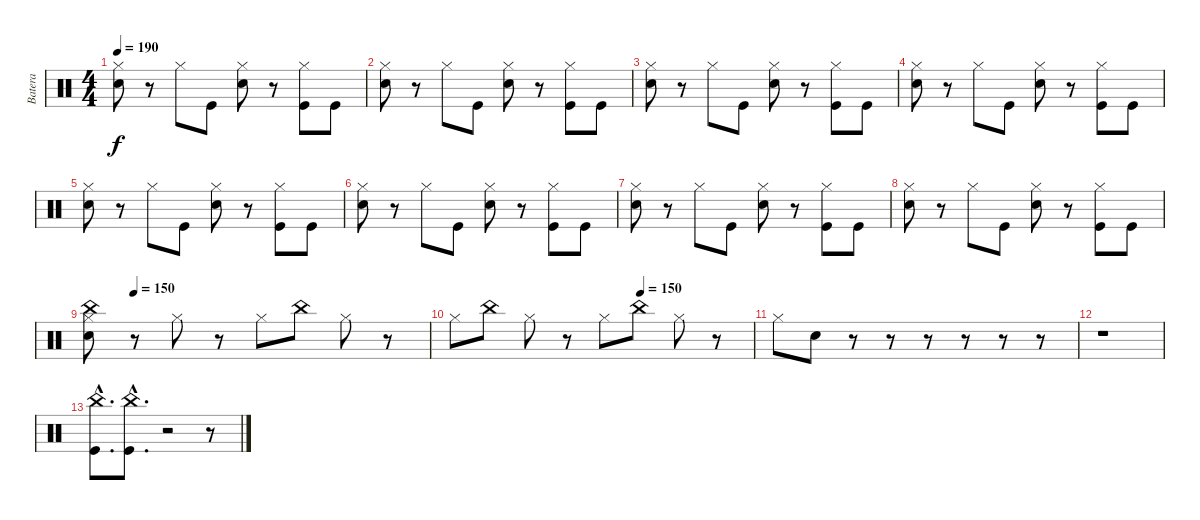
\track ("Batera" "Batera") {instrument percussion}
\staff {score}
\articulation defaults
\ts (4 4)
\tempo 190
\clef neutral
\ks c
("Hi-Hat (closed)" "Snare (hit) 2").8{dy f} r.8 "Hi-Hat (closed)".8 "Kick (hit)".8 ("Hi-Hat (closed)" "Snare (hit) 2").8 r.8 ("Hi-Hat (closed)" "Kick (hit)").8 "Kick (hit)".8 |
("Hi-Hat (closed)" "Snare (hit) 2").8 r.8 "Hi-Hat (closed)".8 "Kick (hit)".8 ("Hi-Hat (closed)" "Snare (hit) 2").8 r.8 ("Hi-Hat (closed)" "Kick (hit)").8 "Kick (hit)".8 |
("Hi-Hat (closed)" "Snare (hit) 2").8 r.8 "Hi-Hat (closed)".8 "Kick (hit)".8 ("Hi-Hat (closed)" "Snare (hit) 2").8 r.8 ("Hi-Hat (closed)" "Kick (hit)").8 "Kick (hit)".8 |
("Hi-Hat (closed)" "Snare (hit) 2").8 r.8 "Hi-Hat (closed)".8 "Kick (hit)".8 ("Hi-Hat (closed)" "Snare (hit) 2").8 r.8 ("Hi-Hat (closed)" "Kick (hit)").8 "Kick (hit)".8 |
("Hi-Hat (closed)" "Snare (hit) 2").8 r.8 "Hi-Hat (closed)".8 "Kick (hit)".8 ("Hi-Hat (closed)" "Snare (hit) 2").8 r.8 ("Hi-Hat (closed)" "Kick (hit)").8 "Kick (hit)".8 |
("Hi-Hat (closed)" "Snare (hit) 2").8 r.8 "Hi-Hat (closed)".8 "Kick (hit)".8 ("Hi-Hat (closed)" "Snare (hit) 2").8 r.8 ("Hi-Hat (closed)" "Kick (hit)").8 "Kick (hit)".8 |
("Hi-Hat (closed)" "Snare (hit) 2").8 r.8 "Hi-Hat (closed)".8 "Kick (hit)".8 ("Hi-Hat (closed)" "Snare (hit) 2").8 r.8 ("Hi-Hat (closed)" "Kick (hit)").8 "Kick (hit)".8 |
("Hi-Hat (closed)" "Snare (hit) 2").8 r.8 "Hi-Hat (closed)".8 "Kick (hit)".8 ("Hi-Hat (closed)" "Snare (hit) 2").8 r.8 ("Hi-Hat (closed)" "Kick (hit)").8 "Kick (hit)".8 |
\tempo (150 0.125)
("Hi-Hat (closed)" "Snare (hit) 2" "China (hit)").8 r.8 "Hi-Hat (closed)".8 r.8 "Hi-Hat (closed)".8 "China (hit)".8 "Hi-Hat (closed)".8 r.8 |
\tempo (150 0.625)
"Hi-Hat (closed)".8 "China (hit)".8 "Hi-Hat (closed)".8 r.8 "Hi-Hat (closed)".8 "China (hit)".8 "Hi-Hat (closed)".8 r.8 |
"Hi-Hat (closed)".8 "Snare (hit) 2".8 r.8 r.8 r.8 r.8 r.8 r.8 |
r.1 |
("China (hit)"{hac} "Kick (hit)"{hac}).8{d} ("China (hit)"{hac} "Kick (hit)"{hac}).8{d} r.2 r.8
